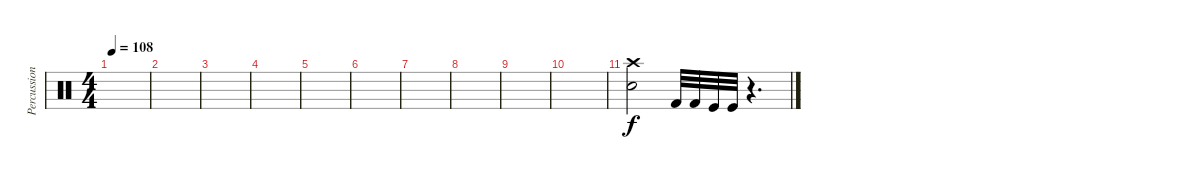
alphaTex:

\track ("Percussions" "Percussion") {instrument percussion}
\staff {score}
\articulation defaults
\ts (4 4)
\tempo 108
\clef neutral
\ks c
|
|
|
|
|
|
|
|
|
|
("Crash high (hit)" "Electric Snare (hit)").2{dy f} "Kick (hit) 2".32 "Kick (hit) 2".32 "Kick (hit)".32 "Kick (hit)".32 r.4{d}
